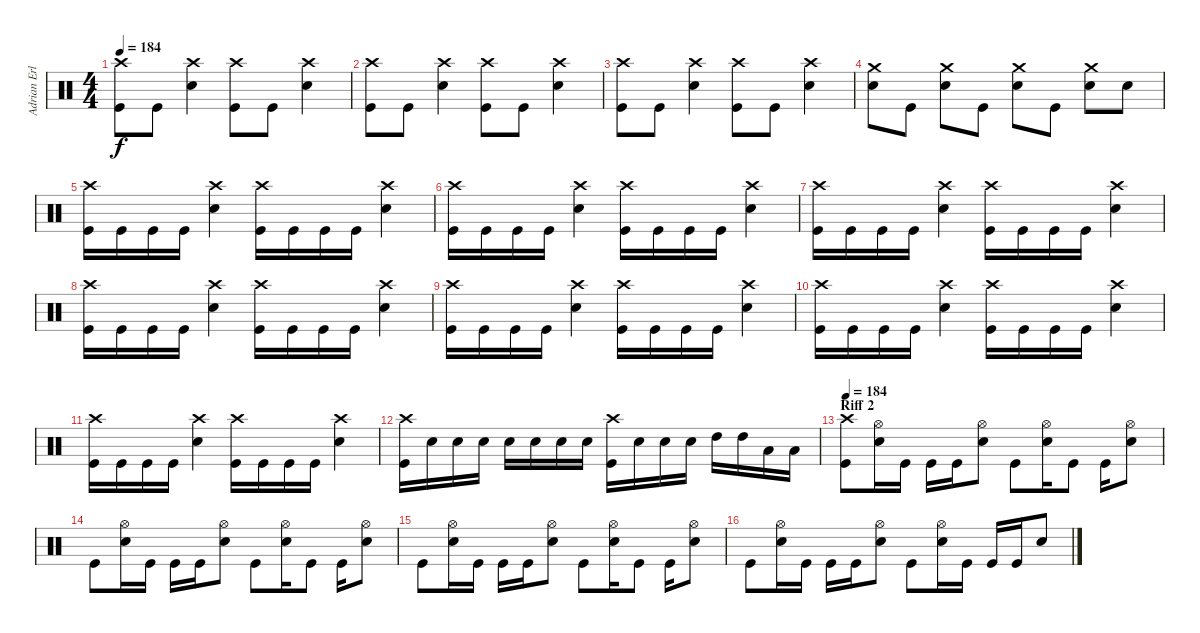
\track ("Adrian Erlandsson (Norseman of the Apoca" "Adrian Erl") {instrument percussion}
\staff {score}
\articulation defaults
\ts (4 4)
\tempo 184
\clef neutral
\ks c
("Crash high (hit)" "Kick (hit)").8{dy f} "Kick (hit)".8 ("Crash high (hit)" "Electric Snare (hit)").4 ("Crash high (hit)" "Kick (hit)").8 "Kick (hit)".8 ("Crash high (hit)" "Electric Snare (hit)").4 |
("Crash high (hit)" "Kick (hit)").8 "Kick (hit)".8 ("Crash high (hit)" "Electric Snare (hit)").4 ("Crash high (hit)" "Kick (hit)").8 "Kick (hit)".8 ("Crash high (hit)" "Electric Snare (hit)").4 |
("Crash high (hit)" "Kick (hit)").8 "Kick (hit)".8 ("Crash high (hit)" "Electric Snare (hit)").4 ("Crash high (hit)" "Kick (hit)").8 "Kick (hit)".8 ("Crash high (hit)" "Electric Snare (hit)").4 |
("Crash medium (hit)" "Electric Snare (hit)").8 "Kick (hit)".8 ("Crash medium (hit)" "Electric Snare (hit)").8 "Kick (hit)".8 ("Crash medium (hit)" "Electric Snare (hit)").8 "Kick (hit)".8 ("Crash medium (hit)" "Electric Snare (hit)").8 "Electric Snare (hit)".8 |
("Crash high (hit)" "Kick (hit)").16 "Kick (hit)".16 "Kick (hit)".16 "Kick (hit)".16 ("Crash high (hit)" "Electric Snare (hit)").4 ("Crash high (hit)" "Kick (hit)").16 "Kick (hit)".16 "Kick (hit)".16 "Kick (hit)".16 ("Crash high (hit)" "Electric Snare (hit)").4 |
("Crash high (hit)" "Kick (hit)").16 "Kick (hit)".16 "Kick (hit)".16 "Kick (hit)".16 ("Crash high (hit)" "Electric Snare (hit)").4 ("Crash high (hit)" "Kick (hit)").16 "Kick (hit)".16 "Kick (hit)".16 "Kick (hit)".16 ("Crash high (hit)" "Electric Snare (hit)").4 |
("Crash high (hit)" "Kick (hit)").16 "Kick (hit)".16 "Kick (hit)".16 "Kick (hit)".16 ("Crash high (hit)" "Electric Snare (hit)").4 ("Crash high (hit)" "Kick (hit)").16 "Kick (hit)".16 "Kick (hit)".16 "Kick (hit)".16 ("Crash high (hit)" "Electric Snare (hit)").4 |
("Crash high (hit)" "Kick (hit)").16 "Kick (hit)".16 "Kick (hit)".16 "Kick (hit)".16 ("Crash high (hit)" "Electric Snare (hit)").4 ("Crash high (hit)" "Kick (hit)").16 "Kick (hit)".16 "Kick (hit)".16 "Kick (hit)".16 ("Crash high (hit)" "Electric Snare (hit)").4 |
("Crash high (hit)" "Kick (hit)").16 "Kick (hit)".16 "Kick (hit)".16 "Kick (hit)".16 ("Crash high (hit)" "Electric Snare (hit)").4 ("Crash high (hit)" "Kick (hit)").16 "Kick (hit)".16 "Kick (hit)".16 "Kick (hit)".16 ("Crash high (hit)" "Electric Snare (hit)").4 |
("Crash high (hit)" "Kick (hit)").16 "Kick (hit)".16 "Kick (hit)".16 "Kick (hit)".16 ("Crash high (hit)" "Electric Snare (hit)").4 ("Crash high (hit)" "Kick (hit)").16 "Kick (hit)".16 "Kick (hit)".16 "Kick (hit)".16 ("Crash high (hit)" "Electric Snare (hit)").4 |
("Crash high (hit)" "Kick (hit)").16 "Kick (hit)".16 "Kick (hit)".16 "Kick (hit)".16 ("Crash high (hit)" "Electric Snare (hit)").4 ("Crash high (hit)" "Kick (hit)").16 "Kick (hit)".16 "Kick (hit)".16 "Kick (hit)".16 ("Crash high (hit)" "Electric Snare (hit)").4 |
("Crash high (hit)" "Kick (hit)").16 "Electric Snare (hit)".16 "Electric Snare (hit)".16 "Electric Snare (hit)".16 "Electric Snare (hit)".16 "Electric Snare (hit)".16 "Electric Snare (hit)".16 "Electric Snare (hit)".16 ("Crash high (hit)" "Kick (hit)").16 "Electric Snare (hit)".16 "Electric Snare (hit)".16 "Electric Snare (hit)".16 "High Tom (hit)".16 "High Tom (hit)".16 "Low Tom (hit)".16 "Low Tom (hit)".16 |
\section ("" "Riff 2")
\tempo 184
("Crash high (hit)" "Kick (hit)").8 ("Hi-Hat (open)" "Electric Snare (hit)").16 "Kick (hit)".16 "Kick (hit)".16 "Kick (hit)".16 ("Hi-Hat (open)" "Electric Snare (hit)").8 "Kick (hit)".8 ("Hi-Hat (open)" "Electric Snare (hit)").16 "Kick (hit)".8 "Kick (hit)".16 ("Hi-Hat (open)" "Electric Snare (hit)").8 |
"Kick (hit)".8 ("Hi-Hat (open)" "Electric Snare (hit)").16 "Kick (hit)".16 "Kick (hit)".16 "Kick (hit)".16 ("Hi-Hat (open)" "Electric Snare (hit)").8 "Kick (hit)".8 ("Hi-Hat (open)" "Electric Snare (hit)").16 "Kick (hit)".8 "Kick (hit)".16 ("Hi-Hat (open)" "Electric Snare (hit)").8 |
"Kick (hit)".8 ("Hi-Hat (open)" "Electric Snare (hit)").16 "Kick (hit)".16 "Kick (hit)".16 "Kick (hit)".16 ("Hi-Hat (open)" "Electric Snare (hit)").8 "Kick (hit)".8 ("Hi-Hat (open)" "Electric Snare (hit)").16 "Kick (hit)".8 "Kick (hit)".16 ("Hi-Hat (open)" "Electric Snare (hit)").8 |
"Kick (hit)".8 ("Hi-Hat (open)" "Electric Snare (hit)").16 "Kick (hit)".16 "Kick (hit)".16 "Kick (hit)".16 ("Hi-Hat (open)" "Electric Snare (hit)").8 "Kick (hit)".8 ("Hi-Hat (open)" "Electric Snare (hit)").16 "Kick (hit)".16 "Kick (hit)".16 "Kick (hit)".16 "Electric Snare (hit)".8
